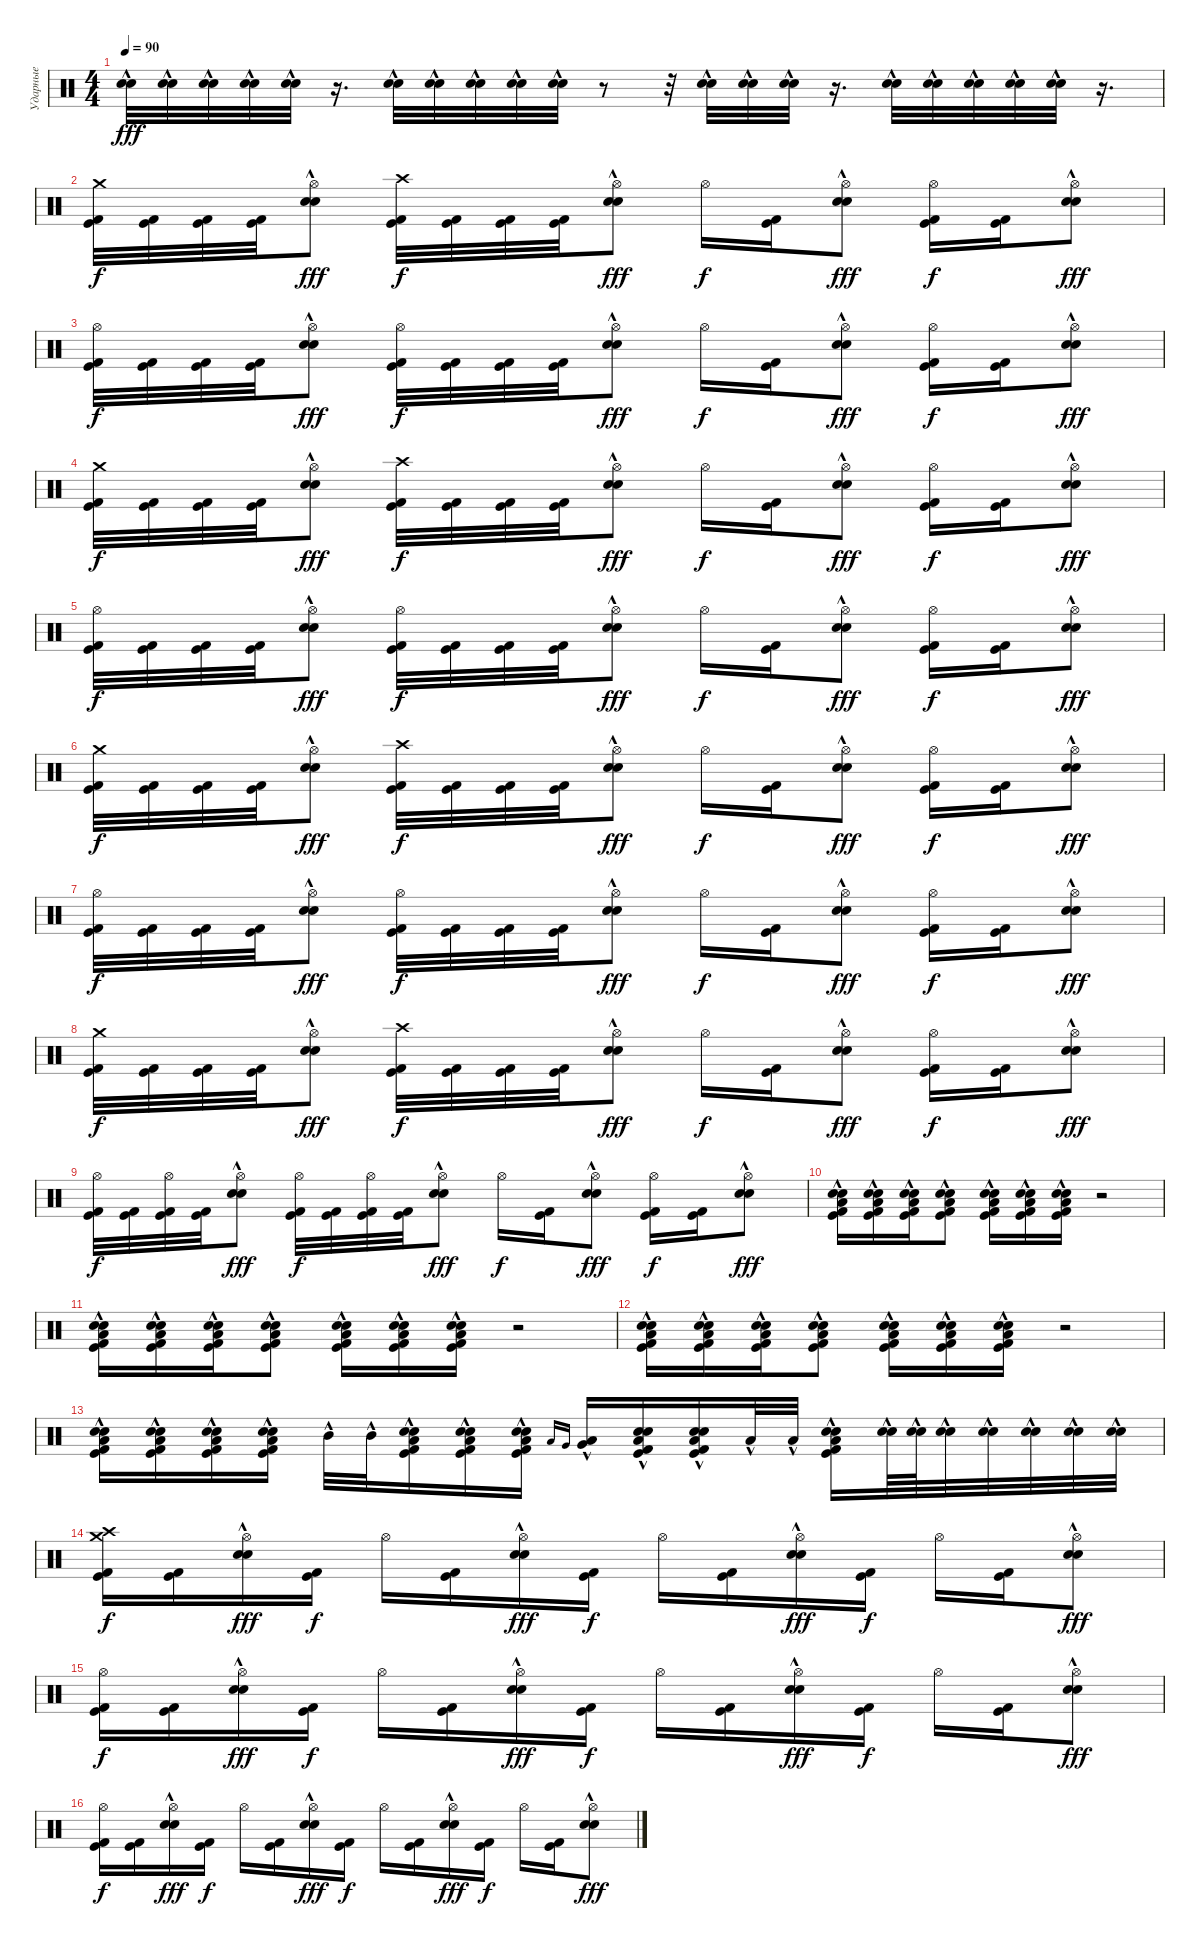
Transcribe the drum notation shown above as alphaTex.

\track ("Ударные" "Ударные") {instrument percussion}
\staff {score}
\articulation defaults
\ts (4 4)
\tempo 90
\clef neutral
\ks c
("Snare (hit) 2"{hac} "Electric Snare (hit)"{hac}).32{dy fff} ("Snare (hit) 2"{hac} "Electric Snare (hit)"{hac}).32 ("Snare (hit) 2"{hac} "Electric Snare (hit)"{hac}).32 ("Snare (hit) 2"{hac} "Electric Snare (hit)"{hac}).32 ("Snare (hit) 2"{hac} "Electric Snare (hit)"{hac}).32 r.16{d} ("Snare (hit) 2"{hac} "Electric Snare (hit)"{hac}).32 ("Snare (hit) 2"{hac} "Electric Snare (hit)"{hac}).32 ("Snare (hit) 2"{hac} "Electric Snare (hit)"{hac}).32 ("Snare (hit) 2"{hac} "Electric Snare (hit)"{hac}).32 ("Snare (hit) 2"{hac} "Electric Snare (hit)"{hac}).32 r.8 r.32 ("Snare (hit) 2"{hac} "Electric Snare (hit)"{hac}).32 ("Snare (hit) 2"{hac} "Electric Snare (hit)"{hac}).32 ("Snare (hit) 2"{hac} "Electric Snare (hit)"{hac}).32 r.16{d} ("Snare (hit) 2"{hac} "Electric Snare (hit)"{hac}).32 ("Snare (hit) 2"{hac} "Electric Snare (hit)"{hac}).32 ("Snare (hit) 2"{hac} "Electric Snare (hit)"{hac}).32 ("Snare (hit) 2"{hac} "Electric Snare (hit)"{hac}).32 ("Snare (hit) 2"{hac} "Electric Snare (hit)"{hac}).32 r.16{d} |
("Crash medium (hit)" "Kick (hit)" "Kick (hit) 2").32{dy f} ("Kick (hit)" "Kick (hit) 2").32 ("Kick (hit)" "Kick (hit) 2").32 ("Kick (hit)" "Kick (hit) 2").32 ("Hi-Hat (open)" "Snare (hit) 2"{hac} "Electric Snare (hit)"{hac}).8{dy fff} ("Crash high (hit)" "Kick (hit)" "Kick (hit) 2").32{dy f} ("Kick (hit)" "Kick (hit) 2").32 ("Kick (hit)" "Kick (hit) 2").32 ("Kick (hit)" "Kick (hit) 2").32 ("Hi-Hat (open)" "Snare (hit) 2"{hac} "Electric Snare (hit)"{hac}).8{dy fff} "Hi-Hat (open)".16{dy f} ("Kick (hit)" "Kick (hit) 2").16 ("Hi-Hat (open)" "Snare (hit) 2"{hac} "Electric Snare (hit)"{hac}).8{dy fff} ("Hi-Hat (open)" "Kick (hit)" "Kick (hit) 2").16{dy f} ("Kick (hit)" "Kick (hit) 2").16 ("Hi-Hat (open)" "Snare (hit) 2"{hac} "Electric Snare (hit)"{hac}).8{dy fff} |
("Hi-Hat (open)" "Kick (hit)" "Kick (hit) 2").32{dy f} ("Kick (hit)" "Kick (hit) 2").32 ("Kick (hit)" "Kick (hit) 2").32 ("Kick (hit)" "Kick (hit) 2").32 ("Hi-Hat (open)" "Snare (hit) 2"{hac} "Electric Snare (hit)"{hac}).8{dy fff} ("Hi-Hat (open)" "Kick (hit)" "Kick (hit) 2").32{dy f} ("Kick (hit)" "Kick (hit) 2").32 ("Kick (hit)" "Kick (hit) 2").32 ("Kick (hit)" "Kick (hit) 2").32 ("Hi-Hat (open)" "Snare (hit) 2"{hac} "Electric Snare (hit)"{hac}).8{dy fff} "Hi-Hat (open)".16{dy f} ("Kick (hit)" "Kick (hit) 2").16 ("Hi-Hat (open)" "Snare (hit) 2"{hac} "Electric Snare (hit)"{hac}).8{dy fff} ("Hi-Hat (open)" "Kick (hit)" "Kick (hit) 2").16{dy f} ("Kick (hit)" "Kick (hit) 2").16 ("Hi-Hat (open)" "Snare (hit) 2"{hac} "Electric Snare (hit)"{hac}).8{dy fff} |
("Crash medium (hit)" "Kick (hit)" "Kick (hit) 2").32{dy f} ("Kick (hit)" "Kick (hit) 2").32 ("Kick (hit)" "Kick (hit) 2").32 ("Kick (hit)" "Kick (hit) 2").32 ("Hi-Hat (open)" "Snare (hit) 2"{hac} "Electric Snare (hit)"{hac}).8{dy fff} ("Crash high (hit)" "Kick (hit)" "Kick (hit) 2").32{dy f} ("Kick (hit)" "Kick (hit) 2").32 ("Kick (hit)" "Kick (hit) 2").32 ("Kick (hit)" "Kick (hit) 2").32 ("Hi-Hat (open)" "Snare (hit) 2"{hac} "Electric Snare (hit)"{hac}).8{dy fff} "Hi-Hat (open)".16{dy f} ("Kick (hit)" "Kick (hit) 2").16 ("Hi-Hat (open)" "Snare (hit) 2"{hac} "Electric Snare (hit)"{hac}).8{dy fff} ("Hi-Hat (open)" "Kick (hit)" "Kick (hit) 2").16{dy f} ("Kick (hit)" "Kick (hit) 2").16 ("Hi-Hat (open)" "Snare (hit) 2"{hac} "Electric Snare (hit)"{hac}).8{dy fff} |
("Hi-Hat (open)" "Kick (hit)" "Kick (hit) 2").32{dy f} ("Kick (hit)" "Kick (hit) 2").32 ("Kick (hit)" "Kick (hit) 2").32 ("Kick (hit)" "Kick (hit) 2").32 ("Hi-Hat (open)" "Snare (hit) 2"{hac} "Electric Snare (hit)"{hac}).8{dy fff} ("Hi-Hat (open)" "Kick (hit)" "Kick (hit) 2").32{dy f} ("Kick (hit)" "Kick (hit) 2").32 ("Kick (hit)" "Kick (hit) 2").32 ("Kick (hit)" "Kick (hit) 2").32 ("Hi-Hat (open)" "Snare (hit) 2"{hac} "Electric Snare (hit)"{hac}).8{dy fff} "Hi-Hat (open)".16{dy f} ("Kick (hit)" "Kick (hit) 2").16 ("Hi-Hat (open)" "Snare (hit) 2"{hac} "Electric Snare (hit)"{hac}).8{dy fff} ("Hi-Hat (open)" "Kick (hit)" "Kick (hit) 2").16{dy f} ("Kick (hit)" "Kick (hit) 2").16 ("Hi-Hat (open)" "Snare (hit) 2"{hac} "Electric Snare (hit)"{hac}).8{dy fff} |
("Crash medium (hit)" "Kick (hit)" "Kick (hit) 2").32{dy f} ("Kick (hit)" "Kick (hit) 2").32 ("Kick (hit)" "Kick (hit) 2").32 ("Kick (hit)" "Kick (hit) 2").32 ("Hi-Hat (open)" "Snare (hit) 2"{hac} "Electric Snare (hit)"{hac}).8{dy fff} ("Crash high (hit)" "Kick (hit)" "Kick (hit) 2").32{dy f} ("Kick (hit)" "Kick (hit) 2").32 ("Kick (hit)" "Kick (hit) 2").32 ("Kick (hit)" "Kick (hit) 2").32 ("Hi-Hat (open)" "Snare (hit) 2"{hac} "Electric Snare (hit)"{hac}).8{dy fff} "Hi-Hat (open)".16{dy f} ("Kick (hit)" "Kick (hit) 2").16 ("Hi-Hat (open)" "Snare (hit) 2"{hac} "Electric Snare (hit)"{hac}).8{dy fff} ("Hi-Hat (open)" "Kick (hit)" "Kick (hit) 2").16{dy f} ("Kick (hit)" "Kick (hit) 2").16 ("Hi-Hat (open)" "Snare (hit) 2"{hac} "Electric Snare (hit)"{hac}).8{dy fff} |
("Hi-Hat (open)" "Kick (hit)" "Kick (hit) 2").32{dy f} ("Kick (hit)" "Kick (hit) 2").32 ("Kick (hit)" "Kick (hit) 2").32 ("Kick (hit)" "Kick (hit) 2").32 ("Hi-Hat (open)" "Snare (hit) 2"{hac} "Electric Snare (hit)"{hac}).8{dy fff} ("Hi-Hat (open)" "Kick (hit)" "Kick (hit) 2").32{dy f} ("Kick (hit)" "Kick (hit) 2").32 ("Kick (hit)" "Kick (hit) 2").32 ("Kick (hit)" "Kick (hit) 2").32 ("Hi-Hat (open)" "Snare (hit) 2"{hac} "Electric Snare (hit)"{hac}).8{dy fff} "Hi-Hat (open)".16{dy f} ("Kick (hit)" "Kick (hit) 2").16 ("Hi-Hat (open)" "Snare (hit) 2"{hac} "Electric Snare (hit)"{hac}).8{dy fff} ("Hi-Hat (open)" "Kick (hit)" "Kick (hit) 2").16{dy f} ("Kick (hit)" "Kick (hit) 2").16 ("Hi-Hat (open)" "Snare (hit) 2"{hac} "Electric Snare (hit)"{hac}).8{dy fff} |
("Crash medium (hit)" "Kick (hit)" "Kick (hit) 2").32{dy f} ("Kick (hit)" "Kick (hit) 2").32 ("Kick (hit)" "Kick (hit) 2").32 ("Kick (hit)" "Kick (hit) 2").32 ("Hi-Hat (open)" "Snare (hit) 2"{hac} "Electric Snare (hit)"{hac}).8{dy fff} ("Crash high (hit)" "Kick (hit)" "Kick (hit) 2").32{dy f} ("Kick (hit)" "Kick (hit) 2").32 ("Kick (hit)" "Kick (hit) 2").32 ("Kick (hit)" "Kick (hit) 2").32 ("Hi-Hat (open)" "Snare (hit) 2"{hac} "Electric Snare (hit)"{hac}).8{dy fff} "Hi-Hat (open)".16{dy f} ("Kick (hit)" "Kick (hit) 2").16 ("Hi-Hat (open)" "Snare (hit) 2"{hac} "Electric Snare (hit)"{hac}).8{dy fff} ("Hi-Hat (open)" "Kick (hit)" "Kick (hit) 2").16{dy f} ("Kick (hit)" "Kick (hit) 2").16 ("Hi-Hat (open)" "Snare (hit) 2"{hac} "Electric Snare (hit)"{hac}).8{dy fff} |
("Hi-Hat (open)" "Kick (hit)" "Kick (hit) 2").32{dy f} ("Kick (hit)" "Kick (hit) 2").32 ("Hi-Hat (open)" "Kick (hit)" "Kick (hit) 2").32 ("Kick (hit)" "Kick (hit) 2").32 ("Hi-Hat (open)" "Snare (hit) 2"{hac} "Electric Snare (hit)"{hac}).8{dy fff} ("Hi-Hat (open)" "Kick (hit)" "Kick (hit) 2").32{dy f} ("Kick (hit)" "Kick (hit) 2").32 ("Hi-Hat (open)" "Kick (hit)" "Kick (hit) 2").32 ("Kick (hit)" "Kick (hit) 2").32 ("Hi-Hat (open)" "Snare (hit) 2"{hac} "Electric Snare (hit)"{hac}).8{dy fff} "Hi-Hat (open)".16{dy f} ("Kick (hit)" "Kick (hit) 2").16 ("Hi-Hat (open)" "Snare (hit) 2"{hac} "Electric Snare (hit)"{hac}).8{dy fff} ("Hi-Hat (open)" "Kick (hit)" "Kick (hit) 2").16{dy f} ("Kick (hit)" "Kick (hit) 2").16 ("Hi-Hat (open)" "Snare (hit) 2"{hac} "Electric Snare (hit)"{hac}).8{dy fff} |
("Kick (hit)" "Kick (hit) 2" "Snare (hit) 2"{hac} "Electric Snare (hit)"{hac} "Low Floor Tom (hit)"{hac}).16 ("Kick (hit)" "Kick (hit) 2" "Snare (hit) 2"{hac} "Electric Snare (hit)"{hac} "Low Floor Tom (hit)"{hac}).16 ("Kick (hit)" "Kick (hit) 2" "Snare (hit) 2"{hac} "Electric Snare (hit)"{hac} "Low Floor Tom (hit)"{hac}).16 ("Kick (hit)" "Kick (hit) 2" "Snare (hit) 2"{hac} "Electric Snare (hit)"{hac} "Low Floor Tom (hit)"{hac}).8 ("Kick (hit)" "Kick (hit) 2" "Snare (hit) 2"{hac} "Electric Snare (hit)"{hac} "Low Floor Tom (hit)"{hac}).16 ("Kick (hit)" "Kick (hit) 2" "Snare (hit) 2"{hac} "Electric Snare (hit)"{hac} "Low Floor Tom (hit)"{hac}).16 ("Kick (hit)" "Kick (hit) 2" "Snare (hit) 2"{hac} "Electric Snare (hit)"{hac} "Low Floor Tom (hit)"{hac}).16 r.2 |
("Kick (hit)" "Kick (hit) 2" "Snare (hit) 2"{hac} "Electric Snare (hit)"{hac} "Low Floor Tom (hit)"{hac}).16 ("Kick (hit)" "Kick (hit) 2" "Snare (hit) 2"{hac} "Electric Snare (hit)"{hac} "Low Floor Tom (hit)"{hac}).16 ("Kick (hit)" "Kick (hit) 2" "Snare (hit) 2"{hac} "Electric Snare (hit)"{hac} "Low Floor Tom (hit)"{hac}).16 ("Kick (hit)" "Kick (hit) 2" "Snare (hit) 2"{hac} "Electric Snare (hit)"{hac} "Low Floor Tom (hit)"{hac}).8 ("Kick (hit)" "Kick (hit) 2" "Snare (hit) 2"{hac} "Electric Snare (hit)"{hac} "Low Floor Tom (hit)"{hac}).16 ("Kick (hit)" "Kick (hit) 2" "Snare (hit) 2"{hac} "Electric Snare (hit)"{hac} "Low Floor Tom (hit)"{hac}).16 ("Kick (hit)" "Kick (hit) 2" "Snare (hit) 2"{hac} "Electric Snare (hit)"{hac} "Low Floor Tom (hit)"{hac}).16 r.2 |
("Kick (hit)" "Kick (hit) 2" "Snare (hit) 2"{hac} "Electric Snare (hit)"{hac} "Low Floor Tom (hit)"{hac}).16 ("Kick (hit)" "Kick (hit) 2" "Snare (hit) 2"{hac} "Electric Snare (hit)"{hac} "Low Floor Tom (hit)"{hac}).16 ("Kick (hit)" "Kick (hit) 2" "Snare (hit) 2"{hac} "Electric Snare (hit)"{hac} "Low Floor Tom (hit)"{hac}).16 ("Kick (hit)" "Kick (hit) 2" "Snare (hit) 2"{hac} "Electric Snare (hit)"{hac} "Low Floor Tom (hit)"{hac}).8 ("Kick (hit)" "Kick (hit) 2" "Snare (hit) 2"{hac} "Electric Snare (hit)"{hac} "Low Floor Tom (hit)"{hac}).16 ("Kick (hit)" "Kick (hit) 2" "Snare (hit) 2"{hac} "Electric Snare (hit)"{hac} "Low Floor Tom (hit)"{hac}).16 ("Kick (hit)" "Kick (hit) 2" "Snare (hit) 2"{hac} "Electric Snare (hit)"{hac} "Low Floor Tom (hit)"{hac}).16 r.2 |
("Kick (hit)" "Kick (hit) 2" "Snare (hit) 2"{hac} "Electric Snare (hit)"{hac} "Low Floor Tom (hit)"{hac}).16 ("Kick (hit)" "Kick (hit) 2" "Snare (hit) 2"{hac} "Electric Snare (hit)"{hac} "Low Floor Tom (hit)"{hac}).16 ("Kick (hit)" "Kick (hit) 2" "Snare (hit) 2"{hac} "Electric Snare (hit)"{hac} "Low Floor Tom (hit)"{hac}).16 ("Kick (hit)" "Kick (hit) 2" "Snare (hit) 2"{hac} "Electric Snare (hit)"{hac} "Low Floor Tom (hit)"{hac}).16 "Mid Tom (hit)"{hac}.32 "Mid Tom (hit)"{hac}.32 ("Kick (hit)" "Kick (hit) 2" "Snare (hit) 2"{hac} "Electric Snare (hit)"{hac} "Low Floor Tom (hit)"{hac}).16 ("Kick (hit)" "Kick (hit) 2" "Snare (hit) 2"{hac} "Electric Snare (hit)"{hac} "Low Floor Tom (hit)"{hac}).16 ("Kick (hit)" "Kick (hit) 2" "Snare (hit) 2"{hac} "Electric Snare (hit)"{hac} "Low Floor Tom (hit)"{hac}).16 "Low Tom (hit)".16{gr onbeat} "Very Low Tom (hit)".16{gr onbeat} ("Low Tom (hit)"{hac} "Very Low Tom (hit)"{hac}).16 ("Kick (hit)" "Kick (hit) 2" "Snare (hit) 2"{hac} "Electric Snare (hit)"{hac} "Low Floor Tom (hit)"{hac}).16 ("Kick (hit)" "Kick (hit) 2" "Snare (hit) 2"{hac} "Electric Snare (hit)"{hac} "Low Floor Tom (hit)"{hac}).16 "Low Floor Tom (hit)"{hac}.32 "Low Floor Tom (hit)"{hac}.32 ("Kick (hit)" "Kick (hit) 2" "Snare (hit) 2"{hac} "Electric Snare (hit)"{hac} "Low Floor Tom (hit)"{hac}).16 ("Snare (hit) 2"{hac} "Electric Snare (hit)"{hac}).64 ("Snare (hit) 2"{hac} "Electric Snare (hit)"{hac}).64 ("Snare (hit) 2"{hac} "Electric Snare (hit)"{hac}).32 ("Snare (hit) 2"{hac} "Electric Snare (hit)"{hac}).32 ("Snare (hit) 2"{hac} "Electric Snare (hit)"{hac}).32 ("Snare (hit) 2"{hac} "Electric Snare (hit)"{hac}).32 ("Snare (hit) 2"{hac} "Electric Snare (hit)"{hac}).32 |
("Crash high (hit)" "Kick (hit)" "Kick (hit) 2" "Crash medium (hit)").16{dy f} ("Kick (hit)" "Kick (hit) 2").16 ("Hi-Hat (open)" "Snare (hit) 2"{hac} "Electric Snare (hit)"{hac}).16{dy fff} ("Kick (hit)" "Kick (hit) 2").16{dy f} "Hi-Hat (open)".16 ("Kick (hit)" "Kick (hit) 2").16 ("Hi-Hat (open)" "Snare (hit) 2"{hac} "Electric Snare (hit)"{hac}).16{dy fff} ("Kick (hit)" "Kick (hit) 2").16{dy f} "Hi-Hat (open)".16 ("Kick (hit)" "Kick (hit) 2").16 ("Hi-Hat (open)" "Snare (hit) 2"{hac} "Electric Snare (hit)"{hac}).16{dy fff} ("Kick (hit)" "Kick (hit) 2").16{dy f} "Hi-Hat (open)".16 ("Kick (hit)" "Kick (hit) 2").16 ("Hi-Hat (open)" "Snare (hit) 2"{hac} "Electric Snare (hit)"{hac}).8{dy fff} |
("Hi-Hat (open)" "Kick (hit)" "Kick (hit) 2").16{dy f} ("Kick (hit)" "Kick (hit) 2").16 ("Hi-Hat (open)" "Snare (hit) 2"{hac} "Electric Snare (hit)"{hac}).16{dy fff} ("Kick (hit)" "Kick (hit) 2").16{dy f} "Hi-Hat (open)".16 ("Kick (hit)" "Kick (hit) 2").16 ("Hi-Hat (open)" "Snare (hit) 2"{hac} "Electric Snare (hit)"{hac}).16{dy fff} ("Kick (hit)" "Kick (hit) 2").16{dy f} "Hi-Hat (open)".16 ("Kick (hit)" "Kick (hit) 2").16 ("Hi-Hat (open)" "Snare (hit) 2"{hac} "Electric Snare (hit)"{hac}).16{dy fff} ("Kick (hit)" "Kick (hit) 2").16{dy f} "Hi-Hat (open)".16 ("Kick (hit)" "Kick (hit) 2").16 ("Hi-Hat (open)" "Snare (hit) 2"{hac} "Electric Snare (hit)"{hac}).8{dy fff} |
("Hi-Hat (open)" "Kick (hit)" "Kick (hit) 2").16{dy f} ("Kick (hit)" "Kick (hit) 2").16 ("Hi-Hat (open)" "Snare (hit) 2"{hac} "Electric Snare (hit)"{hac}).16{dy fff} ("Kick (hit)" "Kick (hit) 2").16{dy f} "Hi-Hat (open)".16 ("Kick (hit)" "Kick (hit) 2").16 ("Hi-Hat (open)" "Snare (hit) 2"{hac} "Electric Snare (hit)"{hac}).16{dy fff} ("Kick (hit)" "Kick (hit) 2").16{dy f} "Hi-Hat (open)".16 ("Kick (hit)" "Kick (hit) 2").16 ("Hi-Hat (open)" "Snare (hit) 2"{hac} "Electric Snare (hit)"{hac}).16{dy fff} ("Kick (hit)" "Kick (hit) 2").16{dy f} "Hi-Hat (open)".16 ("Kick (hit)" "Kick (hit) 2").16 ("Hi-Hat (open)" "Snare (hit) 2"{hac} "Electric Snare (hit)"{hac}).8{dy fff}
